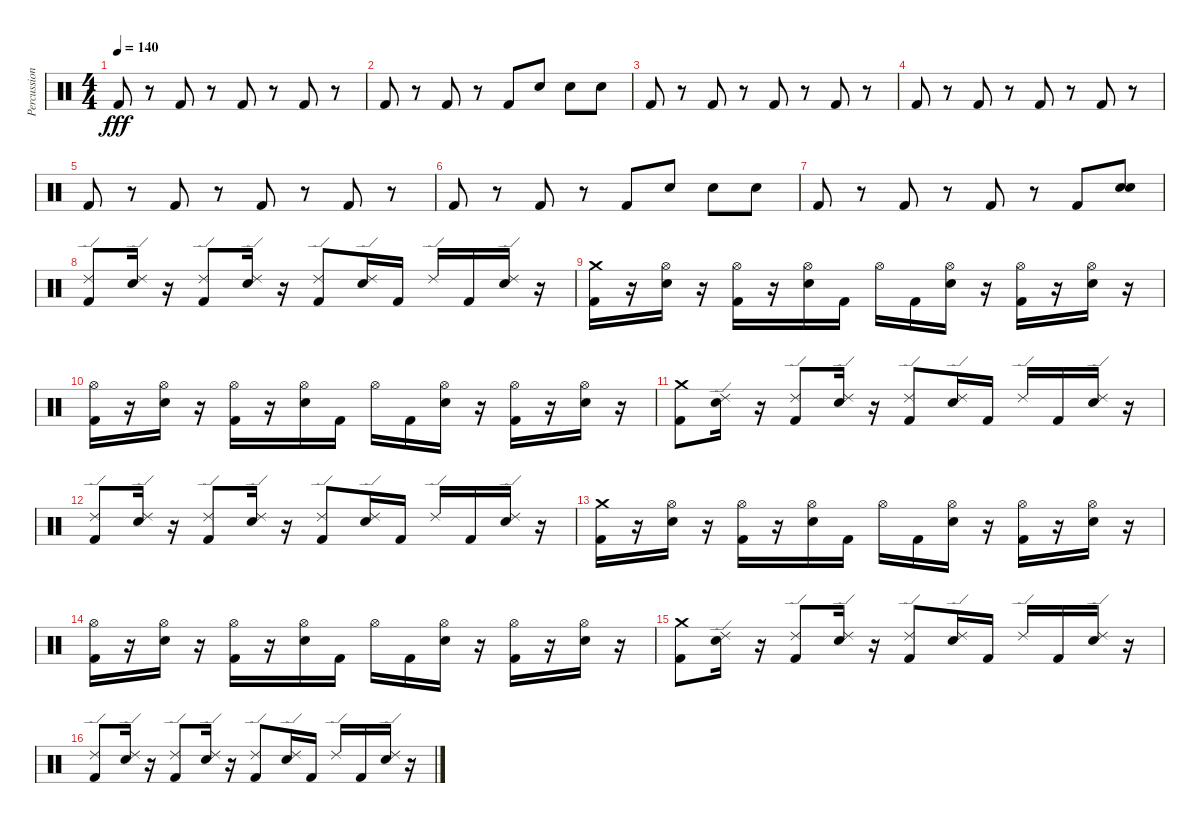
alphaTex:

\track ("Percussion" "Percussion") {instrument percussion}
\staff {score}
\articulation defaults
\ts (4 4)
\tempo 140
\clef neutral
\ks c "Kick (hit) 2".8{dy fff}
r.8 "Kick (hit) 2".8 r.8 "Kick (hit) 2".8 r.8 "Kick (hit) 2".8 r.8 |
"Kick (hit) 2".8 r.8 "Kick (hit) 2".8 r.8 "Kick (hit) 2".8 "Snare (hit) 2".8 "Snare (hit) 2".8 "Snare (hit) 2".8 |
"Kick (hit) 2".8 r.8 "Kick (hit) 2".8 r.8 "Kick (hit) 2".8 r.8 "Kick (hit) 2".8 r.8 |
"Kick (hit) 2".8 r.8 "Kick (hit) 2".8 r.8 "Kick (hit) 2".8 r.8 "Kick (hit) 2".8 r.8 |
"Kick (hit) 2".8 r.8 "Kick (hit) 2".8 r.8 "Kick (hit) 2".8 r.8 "Kick (hit) 2".8 r.8 |
"Kick (hit) 2".8 r.8 "Kick (hit) 2".8 r.8 "Kick (hit) 2".8 "Snare (hit) 2".8 "Snare (hit) 2".8 "Snare (hit) 2".8 |
"Kick (hit) 2".8 r.8 "Kick (hit) 2".8 r.8 "Kick (hit) 2".8 r.8 "Kick (hit) 2".8 ("Snare (hit) 2" "Snare (hit) 2").8 |
("Kick (hit) 2" "Ride (edge) 2").8 ("Snare (hit) 2" "Ride (edge) 2").16 r.16 ("Kick (hit) 2" "Ride (edge) 2").8 ("Snare (hit) 2" "Ride (edge) 2").16 r.16 ("Kick (hit) 2" "Ride (edge) 2").8 ("Snare (hit) 2" "Ride (edge) 2").16 "Kick (hit) 2".16 "Ride (edge) 2".16 "Kick (hit) 2".16 ("Snare (hit) 2" "Ride (edge) 2").16 r.16 |
("Kick (hit) 2" "Crash medium (hit)").16 r.16 ("Hi-Hat (open)" "Snare (hit) 2").16 r.16 ("Hi-Hat (open)" "Kick (hit) 2").16 r.16 ("Hi-Hat (open)" "Snare (hit) 2").16 "Kick (hit) 2".16 "Hi-Hat (open)".16 "Kick (hit) 2".16 ("Hi-Hat (open)" "Snare (hit) 2").16 r.16 ("Hi-Hat (open)" "Kick (hit) 2").16 r.16 ("Hi-Hat (open)" "Snare (hit) 2").16 r.16 |
("Hi-Hat (open)" "Kick (hit) 2").16 r.16 ("Hi-Hat (open)" "Snare (hit) 2").16 r.16 ("Hi-Hat (open)" "Kick (hit) 2").16 r.16 ("Hi-Hat (open)" "Snare (hit) 2").16 "Kick (hit) 2".16 "Hi-Hat (open)".16 "Kick (hit) 2".16 ("Hi-Hat (open)" "Snare (hit) 2").16 r.16 ("Hi-Hat (open)" "Kick (hit) 2").16 r.16 ("Hi-Hat (open)" "Snare (hit) 2").16 r.16 |
("Kick (hit) 2" "Crash medium (hit)").8 ("Snare (hit) 2" "Ride (edge) 2").16 r.16 ("Kick (hit) 2" "Ride (edge) 2").8 ("Snare (hit) 2" "Ride (edge) 2").16 r.16 ("Kick (hit) 2" "Ride (edge) 2").8 ("Snare (hit) 2" "Ride (edge) 2").16 "Kick (hit) 2".16 "Ride (edge) 2".16 "Kick (hit) 2".16 ("Snare (hit) 2" "Ride (edge) 2").16 r.16 |
("Kick (hit) 2" "Ride (edge) 2").8 ("Snare (hit) 2" "Ride (edge) 2").16 r.16 ("Kick (hit) 2" "Ride (edge) 2").8 ("Snare (hit) 2" "Ride (edge) 2").16 r.16 ("Kick (hit) 2" "Ride (edge) 2").8 ("Snare (hit) 2" "Ride (edge) 2").16 "Kick (hit) 2".16 "Ride (edge) 2".16 "Kick (hit) 2".16 ("Snare (hit) 2" "Ride (edge) 2").16 r.16 |
("Kick (hit) 2" "Crash medium (hit)").16 r.16 ("Hi-Hat (open)" "Snare (hit) 2").16 r.16 ("Hi-Hat (open)" "Kick (hit) 2").16 r.16 ("Hi-Hat (open)" "Snare (hit) 2").16 "Kick (hit) 2".16 "Hi-Hat (open)".16 "Kick (hit) 2".16 ("Hi-Hat (open)" "Snare (hit) 2").16 r.16 ("Hi-Hat (open)" "Kick (hit) 2").16 r.16 ("Hi-Hat (open)" "Snare (hit) 2").16 r.16 |
("Hi-Hat (open)" "Kick (hit) 2").16 r.16 ("Hi-Hat (open)" "Snare (hit) 2").16 r.16 ("Hi-Hat (open)" "Kick (hit) 2").16 r.16 ("Hi-Hat (open)" "Snare (hit) 2").16 "Kick (hit) 2".16 "Hi-Hat (open)".16 "Kick (hit) 2".16 ("Hi-Hat (open)" "Snare (hit) 2").16 r.16 ("Hi-Hat (open)" "Kick (hit) 2").16 r.16 ("Hi-Hat (open)" "Snare (hit) 2").16 r.16 |
("Kick (hit) 2" "Crash medium (hit)").8 ("Snare (hit) 2" "Ride (edge) 2").16 r.16 ("Kick (hit) 2" "Ride (edge) 2").8 ("Snare (hit) 2" "Ride (edge) 2").16 r.16 ("Kick (hit) 2" "Ride (edge) 2").8 ("Snare (hit) 2" "Ride (edge) 2").16 "Kick (hit) 2".16 "Ride (edge) 2".16 "Kick (hit) 2".16 ("Snare (hit) 2" "Ride (edge) 2").16 r.16 |
("Kick (hit) 2" "Ride (edge) 2").8 ("Snare (hit) 2" "Ride (edge) 2").16 r.16 ("Kick (hit) 2" "Ride (edge) 2").8 ("Snare (hit) 2" "Ride (edge) 2").16 r.16 ("Kick (hit) 2" "Ride (edge) 2").8 ("Snare (hit) 2" "Ride (edge) 2").16 "Kick (hit) 2".16 "Ride (edge) 2".16 "Kick (hit) 2".16 ("Snare (hit) 2" "Ride (edge) 2").16 r.16
